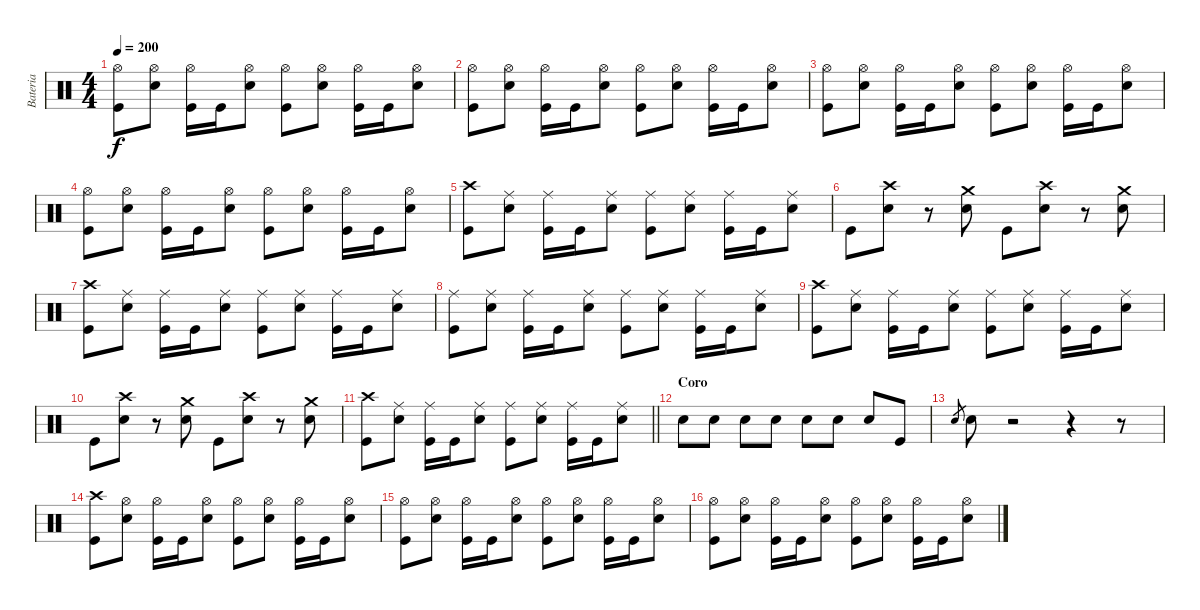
\track ("Bateria" "Bateria") {instrument percussion}
\staff {score}
\articulation defaults
\ts (4 4)
\section ("" "")
\tempo 200
\clef neutral
\ks c
("Hi-Hat (open)" "Kick (hit)").8{dy f} ("Hi-Hat (open)" "Snare (hit) 2").8 ("Hi-Hat (open)" "Kick (hit)").16 "Kick (hit)".16 ("Hi-Hat (open)" "Snare (hit) 2").8 ("Hi-Hat (open)" "Kick (hit)").8 ("Hi-Hat (open)" "Snare (hit) 2").8 ("Hi-Hat (open)" "Kick (hit)").16 "Kick (hit)".16 ("Hi-Hat (open)" "Snare (hit) 2").8 |
("Hi-Hat (open)" "Kick (hit)").8 ("Hi-Hat (open)" "Snare (hit) 2").8 ("Hi-Hat (open)" "Kick (hit)").16 "Kick (hit)".16 ("Hi-Hat (open)" "Snare (hit) 2").8 ("Hi-Hat (open)" "Kick (hit)").8 ("Hi-Hat (open)" "Snare (hit) 2").8 ("Hi-Hat (open)" "Kick (hit)").16 "Kick (hit)".16 ("Hi-Hat (open)" "Snare (hit) 2").8 |
("Hi-Hat (open)" "Kick (hit)").8 ("Hi-Hat (open)" "Snare (hit) 2").8 ("Hi-Hat (open)" "Kick (hit)").16 "Kick (hit)".16 ("Hi-Hat (open)" "Snare (hit) 2").8 ("Hi-Hat (open)" "Kick (hit)").8 ("Hi-Hat (open)" "Snare (hit) 2").8 ("Hi-Hat (open)" "Kick (hit)").16 "Kick (hit)".16 ("Hi-Hat (open)" "Snare (hit) 2").8 |
("Hi-Hat (open)" "Kick (hit)").8 ("Hi-Hat (open)" "Snare (hit) 2").8 ("Hi-Hat (open)" "Kick (hit)").16 "Kick (hit)".16 ("Hi-Hat (open)" "Snare (hit) 2").8 ("Hi-Hat (open)" "Kick (hit)").8 ("Hi-Hat (open)" "Snare (hit) 2").8 ("Hi-Hat (open)" "Kick (hit)").16 "Kick (hit)".16 ("Hi-Hat (open)" "Snare (hit) 2").8 |
("Crash high (hit)" "Kick (hit)").8 ("Ride (middle)" "Snare (hit) 2").8 ("Ride (middle)" "Kick (hit)").16 "Kick (hit)".16 ("Ride (middle)" "Snare (hit) 2").8 ("Ride (middle)" "Kick (hit)").8 ("Ride (middle)" "Snare (hit) 2").8 ("Ride (middle)" "Kick (hit)").16 "Kick (hit)".16 ("Ride (middle)" "Snare (hit) 2").8 |
"Kick (hit)".8 ("Crash high (hit)" "Snare (hit) 2").8 r.8 ("Crash medium (hit)" "Snare (hit) 2").8 "Kick (hit)".8 ("Crash high (hit)" "Snare (hit) 2").8 r.8 ("Crash medium (hit)" "Snare (hit) 2").8 |
("Crash high (hit)" "Kick (hit)").8 ("Ride (middle)" "Snare (hit) 2").8 ("Ride (middle)" "Kick (hit)").16 "Kick (hit)".16 ("Ride (middle)" "Snare (hit) 2").8 ("Ride (middle)" "Kick (hit)").8 ("Ride (middle)" "Snare (hit) 2").8 ("Ride (middle)" "Kick (hit)").16 "Kick (hit)".16 ("Ride (middle)" "Snare (hit) 2").8 |
("Ride (middle)" "Kick (hit)").8 ("Ride (middle)" "Snare (hit) 2").8 ("Ride (middle)" "Kick (hit)").16 "Kick (hit)".16 ("Ride (middle)" "Snare (hit) 2").8 ("Ride (middle)" "Kick (hit)").8 ("Ride (middle)" "Snare (hit) 2").8 ("Ride (middle)" "Kick (hit)").16 "Kick (hit)".16 ("Ride (middle)" "Snare (hit) 2").8 |
("Crash high (hit)" "Kick (hit)").8 ("Ride (middle)" "Snare (hit) 2").8 ("Ride (middle)" "Kick (hit)").16 "Kick (hit)".16 ("Ride (middle)" "Snare (hit) 2").8 ("Ride (middle)" "Kick (hit)").8 ("Ride (middle)" "Snare (hit) 2").8 ("Ride (middle)" "Kick (hit)").16 "Kick (hit)".16 ("Ride (middle)" "Snare (hit) 2").8 |
"Kick (hit)".8 ("Crash high (hit)" "Snare (hit) 2").8 r.8 ("Crash medium (hit)" "Snare (hit) 2").8 "Kick (hit)".8 ("Crash high (hit)" "Snare (hit) 2").8 r.8 ("Crash medium (hit)" "Snare (hit) 2").8 |
\barLineRight lightlight
("Crash high (hit)" "Kick (hit)").8 ("Ride (middle)" "Snare (hit) 2").8 ("Ride (middle)" "Kick (hit)").16 "Kick (hit)".16 ("Ride (middle)" "Snare (hit) 2").8 ("Ride (middle)" "Kick (hit)").8 ("Ride (middle)" "Snare (hit) 2").8 ("Ride (middle)" "Kick (hit)").16 "Kick (hit)".16 ("Ride (middle)" "Snare (hit) 2").8 |
\section ("" "Coro")
"Snare (hit) 2".8 "Snare (hit) 2".8 "Snare (hit) 2".8 "Snare (hit) 2".8 "Snare (hit) 2".8 "Snare (hit) 2".8 "Snare (hit) 2".8 "Kick (hit)".8 |
"Snare (hit) 2".8{gr} "Snare (hit) 2".8 r.2 r.4 r.8 |
("Crash high (hit)" "Kick (hit)").8 ("Hi-Hat (open)" "Snare (hit) 2").8 ("Hi-Hat (open)" "Kick (hit)").16 "Kick (hit)".16 ("Hi-Hat (open)" "Snare (hit) 2").8 ("Hi-Hat (open)" "Kick (hit)").8 ("Hi-Hat (open)" "Snare (hit) 2").8 ("Hi-Hat (open)" "Kick (hit)").16 "Kick (hit)".16 ("Hi-Hat (open)" "Snare (hit) 2").8 |
("Hi-Hat (open)" "Kick (hit)").8 ("Hi-Hat (open)" "Snare (hit) 2").8 ("Hi-Hat (open)" "Kick (hit)").16 "Kick (hit)".16 ("Hi-Hat (open)" "Snare (hit) 2").8 ("Hi-Hat (open)" "Kick (hit)").8 ("Hi-Hat (open)" "Snare (hit) 2").8 ("Hi-Hat (open)" "Kick (hit)").16 "Kick (hit)".16 ("Hi-Hat (open)" "Snare (hit) 2").8 |
("Hi-Hat (open)" "Kick (hit)").8 ("Hi-Hat (open)" "Snare (hit) 2").8 ("Hi-Hat (open)" "Kick (hit)").16 "Kick (hit)".16 ("Hi-Hat (open)" "Snare (hit) 2").8 ("Hi-Hat (open)" "Kick (hit)").8 ("Hi-Hat (open)" "Snare (hit) 2").8 ("Hi-Hat (open)" "Kick (hit)").16 "Kick (hit)".16 ("Hi-Hat (open)" "Snare (hit) 2").8
